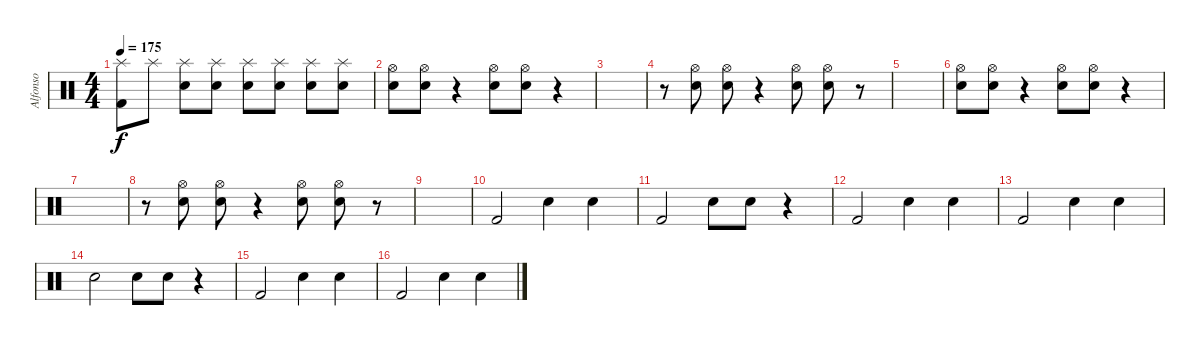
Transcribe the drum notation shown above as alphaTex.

\track ("Alfonso" "Alfonso") {instrument percussion}
\staff {score}
\articulation defaults
\ts (4 4)
\tempo 175
\clef neutral
\ks c
("Splash (hit)" "Kick (hit) 2").8{dy f} "Splash (hit)".8 ("Splash (hit)" "Electric Snare (hit)").8 ("Splash (hit)" "Electric Snare (hit)").8 ("Splash (hit)" "Electric Snare (hit)").8 ("Splash (hit)" "Electric Snare (hit)").8 ("Splash (hit)" "Electric Snare (hit)").8 ("Splash (hit)" "Electric Snare (hit)").8 |
("Hi-Hat (open)" "Electric Snare (hit)").8 ("Hi-Hat (open)" "Electric Snare (hit)").8 r.4 ("Hi-Hat (open)" "Electric Snare (hit)").8 ("Hi-Hat (open)" "Electric Snare (hit)").8 r.4 |
|
r.8 ("Hi-Hat (open)" "Electric Snare (hit)").8 ("Hi-Hat (open)" "Electric Snare (hit)").8 r.4 ("Hi-Hat (open)" "Electric Snare (hit)").8 ("Hi-Hat (open)" "Electric Snare (hit)").8 r.8 |
|
("Hi-Hat (open)" "Electric Snare (hit)").8 ("Hi-Hat (open)" "Electric Snare (hit)").8 r.4 ("Hi-Hat (open)" "Electric Snare (hit)").8 ("Hi-Hat (open)" "Electric Snare (hit)").8 r.4 |
|
r.8 ("Hi-Hat (open)" "Electric Snare (hit)").8 ("Hi-Hat (open)" "Electric Snare (hit)").8 r.4 ("Hi-Hat (open)" "Electric Snare (hit)").8 ("Hi-Hat (open)" "Electric Snare (hit)").8 r.8 |
|
"Kick (hit) 2".2 "Electric Snare (hit)".4 "Electric Snare (hit)".4 |
"Kick (hit) 2".2 "Electric Snare (hit)".8 "Electric Snare (hit)".8 r.4 |
"Kick (hit) 2".2 "Electric Snare (hit)".4 "Electric Snare (hit)".4 |
"Kick (hit) 2".2 "Electric Snare (hit)".4 "Electric Snare (hit)".4 |
"Electric Snare (hit)".2 "Electric Snare (hit)".8 "Electric Snare (hit)".8 r.4 |
"Kick (hit) 2".2 "Electric Snare (hit)".4 "Electric Snare (hit)".4 |
"Kick (hit) 2".2 "Electric Snare (hit)".4 "Electric Snare (hit)".4
